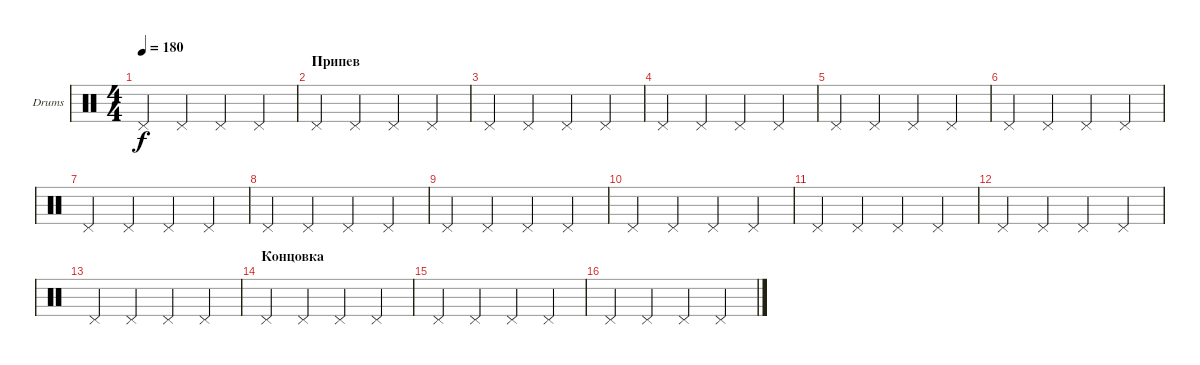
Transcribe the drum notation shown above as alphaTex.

\defaultSystemsLayout 4
\bracketExtendMode groupsimilarinstruments
\firstSystemTrackNameOrientation horizontal
\otherSystemsTrackNameOrientation horizontal
\track ("Drumkit" "Drums") {instrument percussion}
\staff {score}
\articulation defaults
\ts (4 4)
\tempo 180
\clef neutral
\ks c "Pedal Hi-Hat (hit)".4{dy f} "Pedal Hi-Hat (hit)".4 "Pedal Hi-Hat (hit)".4 "Pedal Hi-Hat (hit)".4
|
\section ("" "Припев")
"Pedal Hi-Hat (hit)".4 "Pedal Hi-Hat (hit)".4 "Pedal Hi-Hat (hit)".4 "Pedal Hi-Hat (hit)".4 |
"Pedal Hi-Hat (hit)".4 "Pedal Hi-Hat (hit)".4 "Pedal Hi-Hat (hit)".4 "Pedal Hi-Hat (hit)".4 |
"Pedal Hi-Hat (hit)".4 "Pedal Hi-Hat (hit)".4 "Pedal Hi-Hat (hit)".4 "Pedal Hi-Hat (hit)".4 |
"Pedal Hi-Hat (hit)".4 "Pedal Hi-Hat (hit)".4 "Pedal Hi-Hat (hit)".4 "Pedal Hi-Hat (hit)".4 |
"Pedal Hi-Hat (hit)".4 "Pedal Hi-Hat (hit)".4 "Pedal Hi-Hat (hit)".4 "Pedal Hi-Hat (hit)".4 |
"Pedal Hi-Hat (hit)".4 "Pedal Hi-Hat (hit)".4 "Pedal Hi-Hat (hit)".4 "Pedal Hi-Hat (hit)".4 |
"Pedal Hi-Hat (hit)".4 "Pedal Hi-Hat (hit)".4 "Pedal Hi-Hat (hit)".4 "Pedal Hi-Hat (hit)".4 |
"Pedal Hi-Hat (hit)".4 "Pedal Hi-Hat (hit)".4 "Pedal Hi-Hat (hit)".4 "Pedal Hi-Hat (hit)".4 |
"Pedal Hi-Hat (hit)".4 "Pedal Hi-Hat (hit)".4 "Pedal Hi-Hat (hit)".4 "Pedal Hi-Hat (hit)".4 |
"Pedal Hi-Hat (hit)".4 "Pedal Hi-Hat (hit)".4 "Pedal Hi-Hat (hit)".4 "Pedal Hi-Hat (hit)".4 |
"Pedal Hi-Hat (hit)".4 "Pedal Hi-Hat (hit)".4 "Pedal Hi-Hat (hit)".4 "Pedal Hi-Hat (hit)".4 |
"Pedal Hi-Hat (hit)".4 "Pedal Hi-Hat (hit)".4 "Pedal Hi-Hat (hit)".4 "Pedal Hi-Hat (hit)".4 |
\section ("" "Концовка")
"Pedal Hi-Hat (hit)".4 "Pedal Hi-Hat (hit)".4 "Pedal Hi-Hat (hit)".4 "Pedal Hi-Hat (hit)".4 |
"Pedal Hi-Hat (hit)".4 "Pedal Hi-Hat (hit)".4 "Pedal Hi-Hat (hit)".4 "Pedal Hi-Hat (hit)".4 |
"Pedal Hi-Hat (hit)".4 "Pedal Hi-Hat (hit)".4 "Pedal Hi-Hat (hit)".4 "Pedal Hi-Hat (hit)".4
